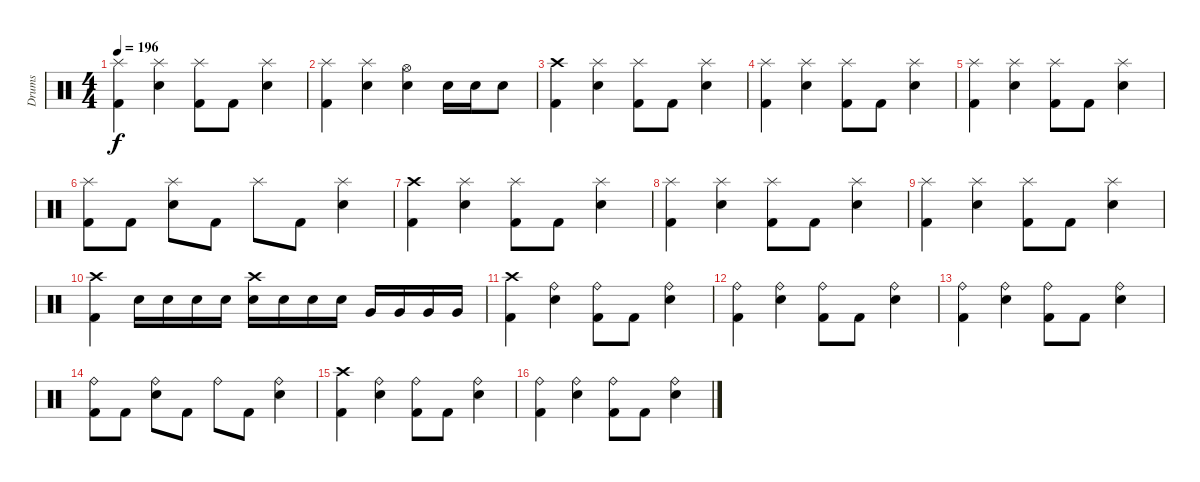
\track ("Drums" "Drums") {instrument percussion}
\staff {score}
\articulation defaults
\ts (4 4)
\tempo 196
\clef neutral
\ks c
("Splash (hit)" "Kick (hit) 2").4{dy f} ("Splash (hit)" "Snare (hit) 2").4 ("Splash (hit)" "Kick (hit) 2").8 "Kick (hit) 2".8 ("Splash (hit)" "Snare (hit) 2").4 |
("Splash (hit)" "Kick (hit) 2").4 ("Splash (hit)" "Snare (hit) 2").4 ("Hi-Hat (open)" "Snare (hit) 2").4 "Snare (hit) 2".16 "Snare (hit) 2".16 "Snare (hit) 2".8 |
("Crash high (hit)" "Kick (hit) 2").4 ("Splash (hit)" "Snare (hit) 2").4 ("Splash (hit)" "Kick (hit) 2").8 "Kick (hit) 2".8 ("Splash (hit)" "Snare (hit) 2").4 |
("Splash (hit)" "Kick (hit) 2").4 ("Splash (hit)" "Snare (hit) 2").4 ("Splash (hit)" "Kick (hit) 2").8 "Kick (hit) 2".8 ("Splash (hit)" "Snare (hit) 2").4 |
("Splash (hit)" "Kick (hit) 2").4 ("Splash (hit)" "Snare (hit) 2").4 ("Splash (hit)" "Kick (hit) 2").8 "Kick (hit) 2".8 ("Splash (hit)" "Snare (hit) 2").4 |
("Splash (hit)" "Kick (hit) 2").8 "Kick (hit) 2".8 ("Splash (hit)" "Snare (hit) 2").8 "Kick (hit) 2".8 "Splash (hit)".8 "Kick (hit) 2".8 ("Splash (hit)" "Snare (hit) 2").4 |
("Crash high (hit)" "Kick (hit) 2").4 ("Splash (hit)" "Snare (hit) 2").4 ("Splash (hit)" "Kick (hit) 2").8 "Kick (hit) 2".8 ("Splash (hit)" "Snare (hit) 2").4 |
("Splash (hit)" "Kick (hit) 2").4 ("Splash (hit)" "Snare (hit) 2").4 ("Splash (hit)" "Kick (hit) 2").8 "Kick (hit) 2".8 ("Splash (hit)" "Snare (hit) 2").4 |
("Splash (hit)" "Kick (hit) 2").4 ("Splash (hit)" "Snare (hit) 2").4 ("Splash (hit)" "Kick (hit) 2").8 "Kick (hit) 2".8 ("Splash (hit)" "Snare (hit) 2").4 |
("Crash high (hit)" "Kick (hit) 2").4 "Snare (hit) 2".16 "Snare (hit) 2".16 "Snare (hit) 2".16 "Snare (hit) 2".16 ("Crash high (hit)" "Electric Snare (hit)").16 "Electric Snare (hit)".16 "Electric Snare (hit)".16 "Electric Snare (hit)".16 "Very Low Tom (hit)".16 "Very Low Tom (hit)".16 "Very Low Tom (hit)".16 "Very Low Tom (hit)".16 |
("Crash high (hit)" "Kick (hit) 2").4 ("Ride (bell)" "Snare (hit) 2").4 ("Ride (bell)" "Kick (hit) 2").8 "Kick (hit) 2".8 ("Ride (bell)" "Snare (hit) 2").4 |
("Ride (bell)" "Kick (hit) 2").4 ("Ride (bell)" "Snare (hit) 2").4 ("Ride (bell)" "Kick (hit) 2").8 "Kick (hit) 2".8 ("Ride (bell)" "Snare (hit) 2").4 |
("Ride (bell)" "Kick (hit) 2").4 ("Ride (bell)" "Snare (hit) 2").4 ("Ride (bell)" "Kick (hit) 2").8 "Kick (hit) 2".8 ("Ride (bell)" "Snare (hit) 2").4 |
("Ride (bell)" "Kick (hit) 2").8 "Kick (hit) 2".8 ("Ride (bell)" "Snare (hit) 2").8 "Kick (hit) 2".8 "Ride (bell)".8 "Kick (hit) 2".8 ("Ride (bell)" "Snare (hit) 2").4 |
("Crash high (hit)" "Kick (hit) 2").4 ("Ride (bell)" "Snare (hit) 2").4 ("Ride (bell)" "Kick (hit) 2").8 "Kick (hit) 2".8 ("Ride (bell)" "Snare (hit) 2").4 |
("Ride (bell)" "Kick (hit) 2").4 ("Ride (bell)" "Snare (hit) 2").4 ("Ride (bell)" "Kick (hit) 2").8 "Kick (hit) 2".8 ("Ride (bell)" "Snare (hit) 2").4
